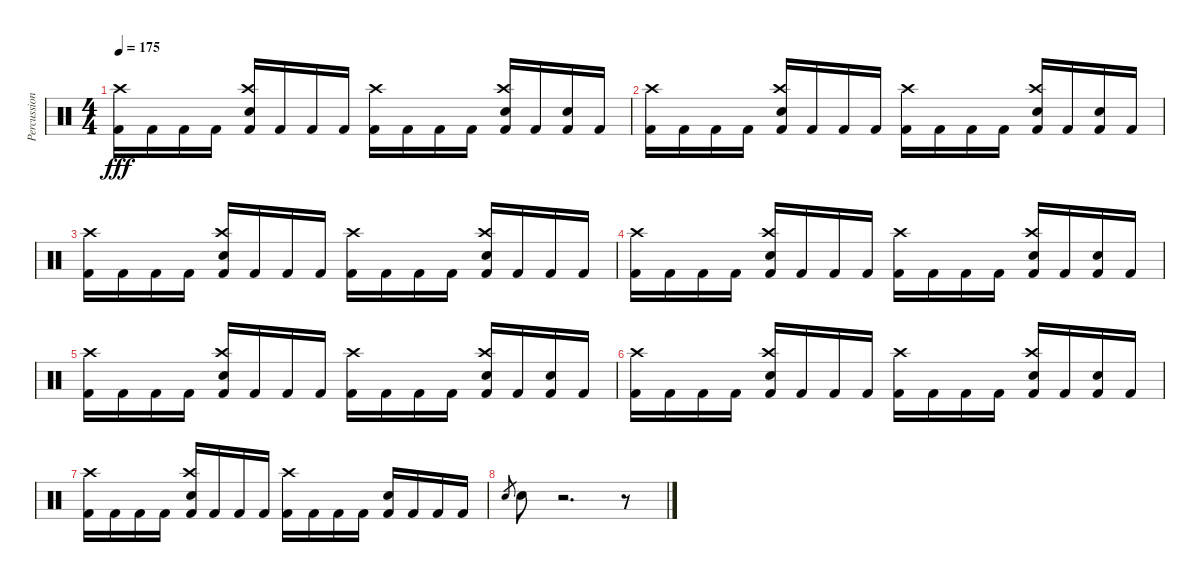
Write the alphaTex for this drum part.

\track ("Percussion" "Percussion") {instrument percussion}
\staff {score}
\articulation defaults
\ts (4 4)
\tempo 175
\clef neutral
\ks c
("Kick (hit) 2" "Crash high (hit)").16{dy fff} "Kick (hit) 2".16 "Kick (hit) 2".16 "Kick (hit) 2".16 ("Kick (hit) 2" "Electric Snare (hit)" "Crash high (hit)").16 "Kick (hit) 2".16 "Kick (hit) 2".16 "Kick (hit) 2".16 ("Kick (hit) 2" "Crash high (hit)").16 "Kick (hit) 2".16 "Kick (hit) 2".16 "Kick (hit) 2".16 ("Kick (hit) 2" "Electric Snare (hit)" "Crash high (hit)").16 "Kick (hit) 2".16 ("Kick (hit) 2" "Electric Snare (hit)").16 "Kick (hit) 2".16 |
("Kick (hit) 2" "Crash high (hit)").16 "Kick (hit) 2".16 "Kick (hit) 2".16 "Kick (hit) 2".16 ("Kick (hit) 2" "Electric Snare (hit)" "Crash high (hit)").16 "Kick (hit) 2".16 "Kick (hit) 2".16 "Kick (hit) 2".16 ("Kick (hit) 2" "Crash high (hit)").16 "Kick (hit) 2".16 "Kick (hit) 2".16 "Kick (hit) 2".16 ("Kick (hit) 2" "Electric Snare (hit)" "Crash high (hit)").16 "Kick (hit) 2".16 ("Kick (hit) 2" "Electric Snare (hit)").16 "Kick (hit) 2".16 |
("Kick (hit) 2" "Crash high (hit)").16 "Kick (hit) 2".16 "Kick (hit) 2".16 "Kick (hit) 2".16 ("Kick (hit) 2" "Electric Snare (hit)" "Crash high (hit)").16 "Kick (hit) 2".16 "Kick (hit) 2".16 "Kick (hit) 2".16 ("Kick (hit) 2" "Crash high (hit)").16 "Kick (hit) 2".16 "Kick (hit) 2".16 "Kick (hit) 2".16 ("Kick (hit) 2" "Electric Snare (hit)" "Crash high (hit)").16 "Kick (hit) 2".16 "Kick (hit) 2".16 "Kick (hit) 2".16 |
("Kick (hit) 2" "Crash high (hit)").16 "Kick (hit) 2".16 "Kick (hit) 2".16 "Kick (hit) 2".16 ("Kick (hit) 2" "Electric Snare (hit)" "Crash high (hit)").16 "Kick (hit) 2".16 "Kick (hit) 2".16 "Kick (hit) 2".16 ("Kick (hit) 2" "Crash high (hit)").16 "Kick (hit) 2".16 "Kick (hit) 2".16 "Kick (hit) 2".16 ("Kick (hit) 2" "Electric Snare (hit)" "Crash high (hit)").16 "Kick (hit) 2".16 ("Kick (hit) 2" "Electric Snare (hit)").16 "Kick (hit) 2".16 |
("Kick (hit) 2" "Crash high (hit)").16 "Kick (hit) 2".16 "Kick (hit) 2".16 "Kick (hit) 2".16 ("Kick (hit) 2" "Electric Snare (hit)" "Crash high (hit)").16 "Kick (hit) 2".16 "Kick (hit) 2".16 "Kick (hit) 2".16 ("Kick (hit) 2" "Crash high (hit)").16 "Kick (hit) 2".16 "Kick (hit) 2".16 "Kick (hit) 2".16 ("Kick (hit) 2" "Electric Snare (hit)" "Crash high (hit)").16 "Kick (hit) 2".16 ("Kick (hit) 2" "Electric Snare (hit)").16 "Kick (hit) 2".16 |
("Kick (hit) 2" "Crash high (hit)").16 "Kick (hit) 2".16 "Kick (hit) 2".16 "Kick (hit) 2".16 ("Kick (hit) 2" "Electric Snare (hit)" "Crash high (hit)").16 "Kick (hit) 2".16 "Kick (hit) 2".16 "Kick (hit) 2".16 ("Kick (hit) 2" "Crash high (hit)").16 "Kick (hit) 2".16 "Kick (hit) 2".16 "Kick (hit) 2".16 ("Kick (hit) 2" "Electric Snare (hit)" "Crash high (hit)").16 "Kick (hit) 2".16 ("Kick (hit) 2" "Electric Snare (hit)").16 "Kick (hit) 2".16 |
("Kick (hit) 2" "Crash high (hit)").16 "Kick (hit) 2".16 "Kick (hit) 2".16 "Kick (hit) 2".16 ("Kick (hit) 2" "Electric Snare (hit)" "Crash high (hit)").16 "Kick (hit) 2".16 "Kick (hit) 2".16 "Kick (hit) 2".16 ("Kick (hit) 2" "Crash high (hit)").16 "Kick (hit) 2".16 "Kick (hit) 2".16 "Kick (hit) 2".16 ("Kick (hit) 2" "Electric Snare (hit)").16 "Kick (hit) 2".16 "Kick (hit) 2".16 "Kick (hit) 2".16 |
"Electric Snare (hit)".8{gr} "Electric Snare (hit)".8 r.2{d} r.8
